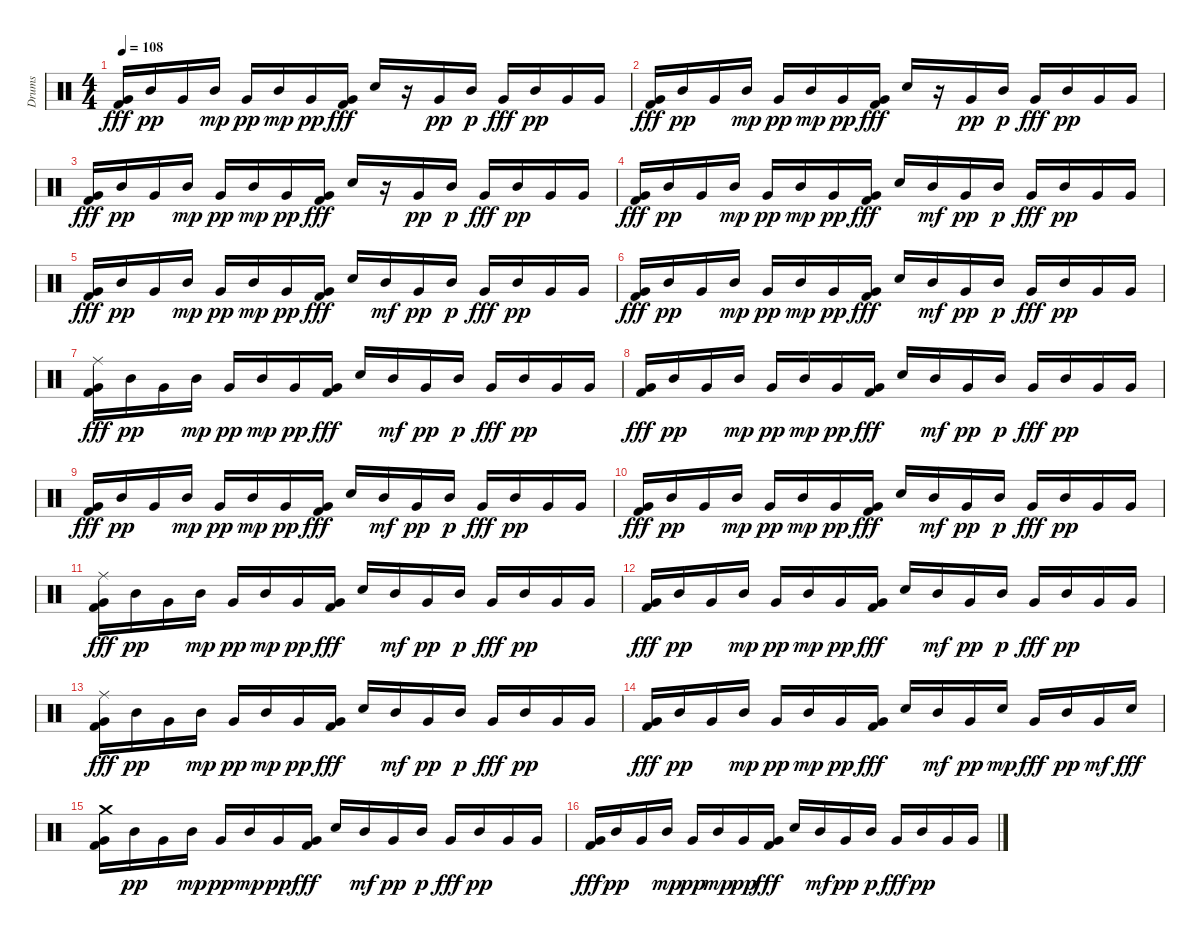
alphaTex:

\track ("Drums" "Drums") {instrument percussion}
\staff {score}
\articulation defaults
\ts (4 4)
\tempo 108
\clef neutral
\ks c
("Very Low Tom (hit)" "Kick (hit) 2").16{dy fff} "Mid Tom (hit)".16{dy pp} "Very Low Tom (hit)".16 "Mid Tom (hit)".16{dy mp} "Very Low Tom (hit)".16{dy pp} "Mid Tom (hit)".16{dy mp} "Very Low Tom (hit)".16{dy pp} ("Very Low Tom (hit)" "Kick (hit) 2").16{dy fff} "Electric Snare (hit)".16 r.16 "Very Low Tom (hit)".16{dy pp} "Mid Tom (hit)".16{dy p} "Very Low Tom (hit)".16{dy fff} "Mid Tom (hit)".16{dy pp} "Very Low Tom (hit)".16 "Very Low Tom (hit)".16 |
("Very Low Tom (hit)" "Kick (hit) 2").16{dy fff} "Mid Tom (hit)".16{dy pp} "Very Low Tom (hit)".16 "Mid Tom (hit)".16{dy mp} "Very Low Tom (hit)".16{dy pp} "Mid Tom (hit)".16{dy mp} "Very Low Tom (hit)".16{dy pp} ("Very Low Tom (hit)" "Kick (hit) 2").16{dy fff} "Electric Snare (hit)".16 r.16 "Very Low Tom (hit)".16{dy pp} "Mid Tom (hit)".16{dy p} "Very Low Tom (hit)".16{dy fff} "Mid Tom (hit)".16{dy pp} "Very Low Tom (hit)".16 "Very Low Tom (hit)".16 |
("Very Low Tom (hit)" "Kick (hit) 2").16{dy fff} "Mid Tom (hit)".16{dy pp} "Very Low Tom (hit)".16 "Mid Tom (hit)".16{dy mp} "Very Low Tom (hit)".16{dy pp} "Mid Tom (hit)".16{dy mp} "Very Low Tom (hit)".16{dy pp} ("Very Low Tom (hit)" "Kick (hit) 2").16{dy fff} "Electric Snare (hit)".16 r.16 "Very Low Tom (hit)".16{dy pp} "Mid Tom (hit)".16{dy p} "Very Low Tom (hit)".16{dy fff} "Mid Tom (hit)".16{dy pp} "Very Low Tom (hit)".16 "Very Low Tom (hit)".16 |
("Very Low Tom (hit)" "Kick (hit) 2").16{dy fff} "Mid Tom (hit)".16{dy pp} "Very Low Tom (hit)".16 "Mid Tom (hit)".16{dy mp} "Very Low Tom (hit)".16{dy pp} "Mid Tom (hit)".16{dy mp} "Very Low Tom (hit)".16{dy pp} ("Very Low Tom (hit)" "Kick (hit) 2").16{dy fff} "Electric Snare (hit)".16 "Mid Tom (hit)".16{dy mf} "Very Low Tom (hit)".16{dy pp} "Mid Tom (hit)".16{dy p} "Very Low Tom (hit)".16{dy fff} "Mid Tom (hit)".16{dy pp} "Very Low Tom (hit)".16 "Very Low Tom (hit)".16 |
("Very Low Tom (hit)" "Kick (hit) 2").16{dy fff} "Mid Tom (hit)".16{dy pp} "Very Low Tom (hit)".16 "Mid Tom (hit)".16{dy mp} "Very Low Tom (hit)".16{dy pp} "Mid Tom (hit)".16{dy mp} "Very Low Tom (hit)".16{dy pp} ("Very Low Tom (hit)" "Kick (hit) 2").16{dy fff} "Electric Snare (hit)".16 "Mid Tom (hit)".16{dy mf} "Very Low Tom (hit)".16{dy pp} "Mid Tom (hit)".16{dy p} "Very Low Tom (hit)".16{dy fff} "Mid Tom (hit)".16{dy pp} "Very Low Tom (hit)".16 "Very Low Tom (hit)".16 |
("Very Low Tom (hit)" "Kick (hit) 2").16{dy fff} "Mid Tom (hit)".16{dy pp} "Very Low Tom (hit)".16 "Mid Tom (hit)".16{dy mp} "Very Low Tom (hit)".16{dy pp} "Mid Tom (hit)".16{dy mp} "Very Low Tom (hit)".16{dy pp} ("Very Low Tom (hit)" "Kick (hit) 2").16{dy fff} "Electric Snare (hit)".16 "Mid Tom (hit)".16{dy mf} "Very Low Tom (hit)".16{dy pp} "Mid Tom (hit)".16{dy p} "Very Low Tom (hit)".16{dy fff} "Mid Tom (hit)".16{dy pp} "Very Low Tom (hit)".16 "Very Low Tom (hit)".16 |
("Ride (middle)" "Very Low Tom (hit)" "Kick (hit) 2").16{dy fff} "Mid Tom (hit)".16{dy pp} "Very Low Tom (hit)".16 "Mid Tom (hit)".16{dy mp} "Very Low Tom (hit)".16{dy pp} "Mid Tom (hit)".16{dy mp} "Very Low Tom (hit)".16{dy pp} ("Very Low Tom (hit)" "Kick (hit) 2").16{dy fff} "Electric Snare (hit)".16 "Mid Tom (hit)".16{dy mf} "Very Low Tom (hit)".16{dy pp} "Mid Tom (hit)".16{dy p} "Very Low Tom (hit)".16{dy fff} "Mid Tom (hit)".16{dy pp} "Very Low Tom (hit)".16 "Very Low Tom (hit)".16 |
("Very Low Tom (hit)" "Kick (hit) 2").16{dy fff} "Mid Tom (hit)".16{dy pp} "Very Low Tom (hit)".16 "Mid Tom (hit)".16{dy mp} "Very Low Tom (hit)".16{dy pp} "Mid Tom (hit)".16{dy mp} "Very Low Tom (hit)".16{dy pp} ("Very Low Tom (hit)" "Kick (hit) 2").16{dy fff} "Electric Snare (hit)".16 "Mid Tom (hit)".16{dy mf} "Very Low Tom (hit)".16{dy pp} "Mid Tom (hit)".16{dy p} "Very Low Tom (hit)".16{dy fff} "Mid Tom (hit)".16{dy pp} "Very Low Tom (hit)".16 "Very Low Tom (hit)".16 |
("Very Low Tom (hit)" "Kick (hit) 2").16{dy fff} "Mid Tom (hit)".16{dy pp} "Very Low Tom (hit)".16 "Mid Tom (hit)".16{dy mp} "Very Low Tom (hit)".16{dy pp} "Mid Tom (hit)".16{dy mp} "Very Low Tom (hit)".16{dy pp} ("Very Low Tom (hit)" "Kick (hit) 2").16{dy fff} "Electric Snare (hit)".16 "Mid Tom (hit)".16{dy mf} "Very Low Tom (hit)".16{dy pp} "Mid Tom (hit)".16{dy p} "Very Low Tom (hit)".16{dy fff} "Mid Tom (hit)".16{dy pp} "Very Low Tom (hit)".16 "Very Low Tom (hit)".16 |
("Very Low Tom (hit)" "Kick (hit) 2").16{dy fff} "Mid Tom (hit)".16{dy pp} "Very Low Tom (hit)".16 "Mid Tom (hit)".16{dy mp} "Very Low Tom (hit)".16{dy pp} "Mid Tom (hit)".16{dy mp} "Very Low Tom (hit)".16{dy pp} ("Very Low Tom (hit)" "Kick (hit) 2").16{dy fff} "Electric Snare (hit)".16 "Mid Tom (hit)".16{dy mf} "Very Low Tom (hit)".16{dy pp} "Mid Tom (hit)".16{dy p} "Very Low Tom (hit)".16{dy fff} "Mid Tom (hit)".16{dy pp} "Very Low Tom (hit)".16 "Very Low Tom (hit)".16 |
("Ride (middle)" "Very Low Tom (hit)" "Kick (hit) 2").16{dy fff} "Mid Tom (hit)".16{dy pp} "Very Low Tom (hit)".16 "Mid Tom (hit)".16{dy mp} "Very Low Tom (hit)".16{dy pp} "Mid Tom (hit)".16{dy mp} "Very Low Tom (hit)".16{dy pp} ("Very Low Tom (hit)" "Kick (hit) 2").16{dy fff} "Electric Snare (hit)".16 "Mid Tom (hit)".16{dy mf} "Very Low Tom (hit)".16{dy pp} "Mid Tom (hit)".16{dy p} "Very Low Tom (hit)".16{dy fff} "Mid Tom (hit)".16{dy pp} "Very Low Tom (hit)".16 "Very Low Tom (hit)".16 |
("Very Low Tom (hit)" "Kick (hit) 2").16{dy fff} "Mid Tom (hit)".16{dy pp} "Very Low Tom (hit)".16 "Mid Tom (hit)".16{dy mp} "Very Low Tom (hit)".16{dy pp} "Mid Tom (hit)".16{dy mp} "Very Low Tom (hit)".16{dy pp} ("Very Low Tom (hit)" "Kick (hit) 2").16{dy fff} "Electric Snare (hit)".16 "Mid Tom (hit)".16{dy mf} "Very Low Tom (hit)".16{dy pp} "Mid Tom (hit)".16{dy p} "Very Low Tom (hit)".16{dy fff} "Mid Tom (hit)".16{dy pp} "Very Low Tom (hit)".16 "Very Low Tom (hit)".16 |
("Ride (middle)" "Very Low Tom (hit)" "Kick (hit) 2").16{dy fff} "Mid Tom (hit)".16{dy pp} "Very Low Tom (hit)".16 "Mid Tom (hit)".16{dy mp} "Very Low Tom (hit)".16{dy pp} "Mid Tom (hit)".16{dy mp} "Very Low Tom (hit)".16{dy pp} ("Very Low Tom (hit)" "Kick (hit) 2").16{dy fff} "Electric Snare (hit)".16 "Mid Tom (hit)".16{dy mf} "Very Low Tom (hit)".16{dy pp} "Mid Tom (hit)".16{dy p} "Very Low Tom (hit)".16{dy fff} "Mid Tom (hit)".16{dy pp} "Very Low Tom (hit)".16 "Very Low Tom (hit)".16 |
("Very Low Tom (hit)" "Kick (hit) 2").16{dy fff} "Mid Tom (hit)".16{dy pp} "Very Low Tom (hit)".16 "Mid Tom (hit)".16{dy mp} "Very Low Tom (hit)".16{dy pp} "Mid Tom (hit)".16{dy mp} "Very Low Tom (hit)".16{dy pp} ("Very Low Tom (hit)" "Kick (hit) 2").16{dy fff} "Electric Snare (hit)".16 "Mid Tom (hit)".16{dy mf} "Very Low Tom (hit)".16{dy pp} "Electric Snare (hit)".16{dy mp} "Very Low Tom (hit)".16{dy fff} "Mid Tom (hit)".16{dy pp} "Very Low Tom (hit)".16{dy mf} "Electric Snare (hit)".16{dy fff} |
("Crash medium (hit)" "Very Low Tom (hit)" "Kick (hit) 2").16 "Mid Tom (hit)".16{dy pp} "Very Low Tom (hit)".16 "Mid Tom (hit)".16{dy mp} "Very Low Tom (hit)".16{dy pp} "Mid Tom (hit)".16{dy mp} "Very Low Tom (hit)".16{dy pp} ("Very Low Tom (hit)" "Kick (hit) 2").16{dy fff} "Electric Snare (hit)".16 "Mid Tom (hit)".16{dy mf} "Very Low Tom (hit)".16{dy pp} "Mid Tom (hit)".16{dy p} "Very Low Tom (hit)".16{dy fff} "Mid Tom (hit)".16{dy pp} "Very Low Tom (hit)".16 "Very Low Tom (hit)".16 |
("Very Low Tom (hit)" "Kick (hit) 2").16{dy fff} "Mid Tom (hit)".16{dy pp} "Very Low Tom (hit)".16 "Mid Tom (hit)".16{dy mp} "Very Low Tom (hit)".16{dy pp} "Mid Tom (hit)".16{dy mp} "Very Low Tom (hit)".16{dy pp} ("Very Low Tom (hit)" "Kick (hit) 2").16{dy fff} "Electric Snare (hit)".16 "Mid Tom (hit)".16{dy mf} "Very Low Tom (hit)".16{dy pp} "Mid Tom (hit)".16{dy p} "Very Low Tom (hit)".16{dy fff} "Mid Tom (hit)".16{dy pp} "Very Low Tom (hit)".16 "Very Low Tom (hit)".16
